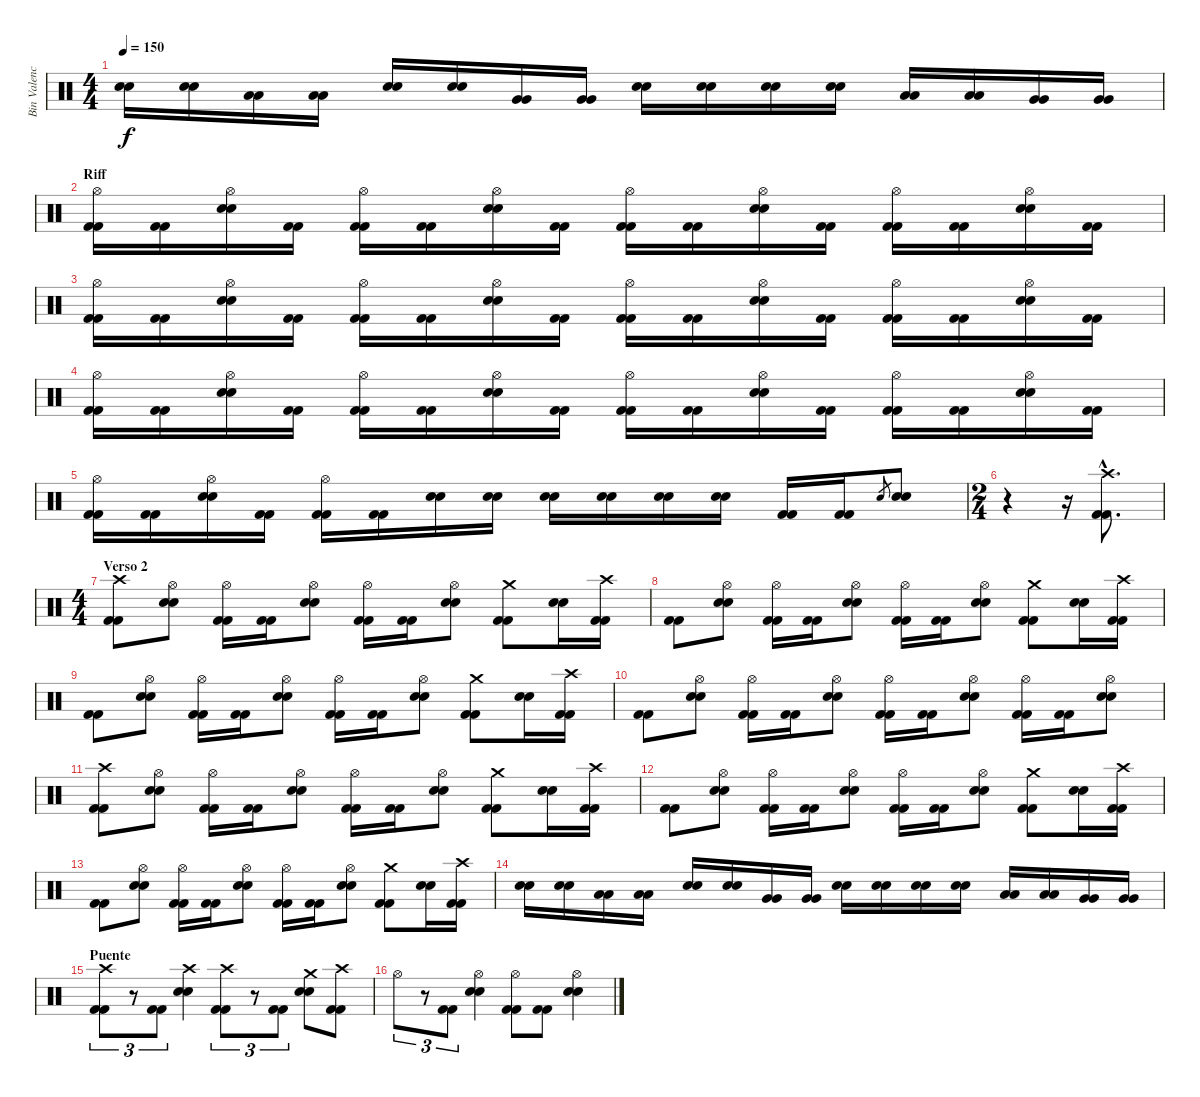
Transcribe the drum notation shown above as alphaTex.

\track ("Bin Valencia (bateria)" "Bin Valenc") {instrument percussion}
\staff {score}
\articulation defaults
\ts (4 4)
\tempo 150
\clef neutral
\ks c
("Snare (hit) 2" "Snare (hit) 2").16{dy f} ("Snare (hit) 2" "Snare (hit) 2").16 ("Low Tom (hit)" "Low Tom (hit)").16 ("Low Tom (hit)" "Low Tom (hit)").16 ("Snare (hit) 2" "Snare (hit) 2").16 ("Snare (hit) 2" "Snare (hit) 2").16 ("Very Low Tom (hit)" "Very Low Tom (hit)").16 ("Very Low Tom (hit)" "Very Low Tom (hit)").16 ("Snare (hit) 2" "Snare (hit) 2").16 ("Snare (hit) 2" "Snare (hit) 2").16 ("Snare (hit) 2" "Snare (hit) 2").16 ("Snare (hit) 2" "Snare (hit) 2").16 ("Low Tom (hit)" "Low Tom (hit)").16 ("Low Tom (hit)" "Low Tom (hit)").16 ("Very Low Tom (hit)" "Very Low Tom (hit)").16 ("Very Low Tom (hit)" "Very Low Tom (hit)").16 |
\section ("" "Riff ")
("Hi-Hat (open)" "Kick (hit) 2" "Kick (hit) 2").16 ("Kick (hit) 2" "Kick (hit) 2").16 ("Hi-Hat (open)" "Snare (hit) 2" "Snare (hit) 2").16 ("Kick (hit) 2" "Kick (hit) 2").16 ("Hi-Hat (open)" "Kick (hit) 2" "Kick (hit) 2").16 ("Kick (hit) 2" "Kick (hit) 2").16 ("Hi-Hat (open)" "Snare (hit) 2" "Snare (hit) 2").16 ("Kick (hit) 2" "Kick (hit) 2").16 ("Hi-Hat (open)" "Kick (hit) 2" "Kick (hit) 2").16 ("Kick (hit) 2" "Kick (hit) 2").16 ("Hi-Hat (open)" "Snare (hit) 2" "Snare (hit) 2").16 ("Kick (hit) 2" "Kick (hit) 2").16 ("Hi-Hat (open)" "Kick (hit) 2" "Kick (hit) 2").16 ("Kick (hit) 2" "Kick (hit) 2").16 ("Hi-Hat (open)" "Snare (hit) 2" "Snare (hit) 2").16 ("Kick (hit) 2" "Kick (hit) 2").16 |
("Hi-Hat (open)" "Kick (hit) 2" "Kick (hit) 2").16 ("Kick (hit) 2" "Kick (hit) 2").16 ("Hi-Hat (open)" "Snare (hit) 2" "Snare (hit) 2").16 ("Kick (hit) 2" "Kick (hit) 2").16 ("Hi-Hat (open)" "Kick (hit) 2" "Kick (hit) 2").16 ("Kick (hit) 2" "Kick (hit) 2").16 ("Hi-Hat (open)" "Snare (hit) 2" "Snare (hit) 2").16 ("Kick (hit) 2" "Kick (hit) 2").16 ("Hi-Hat (open)" "Kick (hit) 2" "Kick (hit) 2").16 ("Kick (hit) 2" "Kick (hit) 2").16 ("Hi-Hat (open)" "Snare (hit) 2" "Snare (hit) 2").16 ("Kick (hit) 2" "Kick (hit) 2").16 ("Hi-Hat (open)" "Kick (hit) 2" "Kick (hit) 2").16 ("Kick (hit) 2" "Kick (hit) 2").16 ("Hi-Hat (open)" "Snare (hit) 2" "Snare (hit) 2").16 ("Kick (hit) 2" "Kick (hit) 2").16 |
("Hi-Hat (open)" "Kick (hit) 2" "Kick (hit) 2").16 ("Kick (hit) 2" "Kick (hit) 2").16 ("Hi-Hat (open)" "Snare (hit) 2" "Snare (hit) 2").16 ("Kick (hit) 2" "Kick (hit) 2").16 ("Hi-Hat (open)" "Kick (hit) 2" "Kick (hit) 2").16 ("Kick (hit) 2" "Kick (hit) 2").16 ("Hi-Hat (open)" "Snare (hit) 2" "Snare (hit) 2").16 ("Kick (hit) 2" "Kick (hit) 2").16 ("Hi-Hat (open)" "Kick (hit) 2" "Kick (hit) 2").16 ("Kick (hit) 2" "Kick (hit) 2").16 ("Hi-Hat (open)" "Snare (hit) 2" "Snare (hit) 2").16 ("Kick (hit) 2" "Kick (hit) 2").16 ("Hi-Hat (open)" "Kick (hit) 2" "Kick (hit) 2").16 ("Kick (hit) 2" "Kick (hit) 2").16 ("Hi-Hat (open)" "Snare (hit) 2" "Snare (hit) 2").16 ("Kick (hit) 2" "Kick (hit) 2").16 |
("Hi-Hat (open)" "Kick (hit) 2" "Kick (hit) 2").16 ("Kick (hit) 2" "Kick (hit) 2").16 ("Hi-Hat (open)" "Snare (hit) 2" "Snare (hit) 2").16 ("Kick (hit) 2" "Kick (hit) 2").16 ("Hi-Hat (open)" "Kick (hit) 2" "Kick (hit) 2").16 ("Kick (hit) 2" "Kick (hit) 2").16 ("Snare (hit) 2" "Snare (hit) 2").16 ("Snare (hit) 2" "Snare (hit) 2").16 ("Snare (hit) 2" "Snare (hit) 2").16 ("Snare (hit) 2" "Snare (hit) 2").16 ("Snare (hit) 2" "Snare (hit) 2").16 ("Snare (hit) 2" "Snare (hit) 2").16 ("Kick (hit) 2" "Kick (hit) 2").16 ("Kick (hit) 2" "Kick (hit) 2").16 "Snare (hit) 2".8{gr} ("Snare (hit) 2" "Snare (hit) 2").8 |
\ts (2 4)
r.4 r.16 ("Crash high (hit)"{hac} "Kick (hit) 2"{hac} "Kick (hit) 2"{hac}).8{d} |
\ts (4 4)
\section ("" "Verso 2")
("Crash high (hit)" "Kick (hit) 2" "Kick (hit) 2").8 ("Hi-Hat (open)" "Snare (hit) 2" "Snare (hit) 2").8 ("Hi-Hat (open)" "Kick (hit) 2" "Kick (hit) 2").16 ("Kick (hit) 2" "Kick (hit) 2").16 ("Hi-Hat (open)" "Snare (hit) 2" "Snare (hit) 2").8 ("Hi-Hat (open)" "Kick (hit) 2" "Kick (hit) 2").16 ("Kick (hit) 2" "Kick (hit) 2").16 ("Hi-Hat (open)" "Snare (hit) 2" "Snare (hit) 2").8 ("Crash medium (hit)" "Kick (hit) 2" "Kick (hit) 2").8 ("Snare (hit) 2" "Snare (hit) 2").16 ("Crash high (hit)" "Kick (hit) 2" "Kick (hit) 2").16 |
("Kick (hit) 2" "Kick (hit) 2").8 ("Hi-Hat (open)" "Snare (hit) 2" "Snare (hit) 2").8 ("Hi-Hat (open)" "Kick (hit) 2" "Kick (hit) 2").16 ("Kick (hit) 2" "Kick (hit) 2").16 ("Hi-Hat (open)" "Snare (hit) 2" "Snare (hit) 2").8 ("Hi-Hat (open)" "Kick (hit) 2" "Kick (hit) 2").16 ("Kick (hit) 2" "Kick (hit) 2").16 ("Hi-Hat (open)" "Snare (hit) 2" "Snare (hit) 2").8 ("Crash medium (hit)" "Kick (hit) 2" "Kick (hit) 2").8 ("Snare (hit) 2" "Snare (hit) 2").16 ("Crash high (hit)" "Kick (hit) 2" "Kick (hit) 2").16 |
("Kick (hit) 2" "Kick (hit) 2").8 ("Hi-Hat (open)" "Snare (hit) 2" "Snare (hit) 2").8 ("Hi-Hat (open)" "Kick (hit) 2" "Kick (hit) 2").16 ("Kick (hit) 2" "Kick (hit) 2").16 ("Hi-Hat (open)" "Snare (hit) 2" "Snare (hit) 2").8 ("Hi-Hat (open)" "Kick (hit) 2" "Kick (hit) 2").16 ("Kick (hit) 2" "Kick (hit) 2").16 ("Hi-Hat (open)" "Snare (hit) 2" "Snare (hit) 2").8 ("Crash medium (hit)" "Kick (hit) 2" "Kick (hit) 2").8 ("Snare (hit) 2" "Snare (hit) 2").16 ("Crash high (hit)" "Kick (hit) 2" "Kick (hit) 2").16 |
("Kick (hit) 2" "Kick (hit) 2").8 ("Hi-Hat (open)" "Snare (hit) 2" "Snare (hit) 2").8 ("Hi-Hat (open)" "Kick (hit) 2" "Kick (hit) 2").16 ("Kick (hit) 2" "Kick (hit) 2").16 ("Hi-Hat (open)" "Snare (hit) 2" "Snare (hit) 2").8 ("Hi-Hat (open)" "Kick (hit) 2" "Kick (hit) 2").16 ("Kick (hit) 2" "Kick (hit) 2").16 ("Hi-Hat (open)" "Snare (hit) 2" "Snare (hit) 2").8 ("Hi-Hat (open)" "Kick (hit) 2" "Kick (hit) 2").16 ("Kick (hit) 2" "Kick (hit) 2").16 ("Hi-Hat (open)" "Snare (hit) 2" "Snare (hit) 2").8 |
("Crash high (hit)" "Kick (hit) 2" "Kick (hit) 2").8 ("Hi-Hat (open)" "Snare (hit) 2" "Snare (hit) 2").8 ("Hi-Hat (open)" "Kick (hit) 2" "Kick (hit) 2").16 ("Kick (hit) 2" "Kick (hit) 2").16 ("Hi-Hat (open)" "Snare (hit) 2" "Snare (hit) 2").8 ("Hi-Hat (open)" "Kick (hit) 2" "Kick (hit) 2").16 ("Kick (hit) 2" "Kick (hit) 2").16 ("Hi-Hat (open)" "Snare (hit) 2" "Snare (hit) 2").8 ("Crash medium (hit)" "Kick (hit) 2" "Kick (hit) 2").8 ("Snare (hit) 2" "Snare (hit) 2").16 ("Crash high (hit)" "Kick (hit) 2" "Kick (hit) 2").16 |
("Kick (hit) 2" "Kick (hit) 2").8 ("Hi-Hat (open)" "Snare (hit) 2" "Snare (hit) 2").8 ("Hi-Hat (open)" "Kick (hit) 2" "Kick (hit) 2").16 ("Kick (hit) 2" "Kick (hit) 2").16 ("Hi-Hat (open)" "Snare (hit) 2" "Snare (hit) 2").8 ("Hi-Hat (open)" "Kick (hit) 2" "Kick (hit) 2").16 ("Kick (hit) 2" "Kick (hit) 2").16 ("Hi-Hat (open)" "Snare (hit) 2" "Snare (hit) 2").8 ("Crash medium (hit)" "Kick (hit) 2" "Kick (hit) 2").8 ("Snare (hit) 2" "Snare (hit) 2").16 ("Crash high (hit)" "Kick (hit) 2" "Kick (hit) 2").16 |
("Kick (hit) 2" "Kick (hit) 2").8 ("Hi-Hat (open)" "Snare (hit) 2" "Snare (hit) 2").8 ("Hi-Hat (open)" "Kick (hit) 2" "Kick (hit) 2").16 ("Kick (hit) 2" "Kick (hit) 2").16 ("Hi-Hat (open)" "Snare (hit) 2" "Snare (hit) 2").8 ("Hi-Hat (open)" "Kick (hit) 2" "Kick (hit) 2").16 ("Kick (hit) 2" "Kick (hit) 2").16 ("Hi-Hat (open)" "Snare (hit) 2" "Snare (hit) 2").8 ("Crash medium (hit)" "Kick (hit) 2" "Kick (hit) 2").8 ("Snare (hit) 2" "Snare (hit) 2").16 ("Crash high (hit)" "Kick (hit) 2" "Kick (hit) 2").16 |
("Snare (hit) 2" "Snare (hit) 2").16 ("Snare (hit) 2" "Snare (hit) 2").16 ("Low Tom (hit)" "Low Tom (hit)").16 ("Low Tom (hit)" "Low Tom (hit)").16 ("Snare (hit) 2" "Snare (hit) 2").16 ("Snare (hit) 2" "Snare (hit) 2").16 ("Very Low Tom (hit)" "Very Low Tom (hit)").16 ("Very Low Tom (hit)" "Very Low Tom (hit)").16 ("Snare (hit) 2" "Snare (hit) 2").16 ("Snare (hit) 2" "Snare (hit) 2").16 ("Snare (hit) 2" "Snare (hit) 2").16 ("Snare (hit) 2" "Snare (hit) 2").16 ("Low Tom (hit)" "Low Tom (hit)").16 ("Low Tom (hit)" "Low Tom (hit)").16 ("Very Low Tom (hit)" "Very Low Tom (hit)").16 ("Very Low Tom (hit)" "Very Low Tom (hit)").16 |
\section ("" "Puente")
("Crash high (hit)" "Kick (hit) 2" "Kick (hit) 2").8{tu (3 2)} r.8{tu (3 2)} ("Kick (hit) 2" "Kick (hit) 2").8{tu (3 2)} ("Crash high (hit)" "Snare (hit) 2" "Snare (hit) 2").4 ("Crash high (hit)" "Kick (hit) 2" "Kick (hit) 2").8{tu (3 2)} r.8{tu (3 2)} ("Kick (hit) 2" "Kick (hit) 2").8{tu (3 2)} ("Crash medium (hit)" "Snare (hit) 2" "Snare (hit) 2").8 ("Crash high (hit)" "Kick (hit) 2" "Kick (hit) 2").8 |
"Hi-Hat (open)".8{tu (3 2)} r.8{tu (3 2)} ("Kick (hit) 2" "Kick (hit) 2").8{tu (3 2)} ("Hi-Hat (open)" "Snare (hit) 2" "Snare (hit) 2").4 ("Hi-Hat (open)" "Kick (hit) 2" "Kick (hit) 2").8 ("Kick (hit) 2" "Kick (hit) 2").8 ("Hi-Hat (open)" "Snare (hit) 2" "Snare (hit) 2").4
